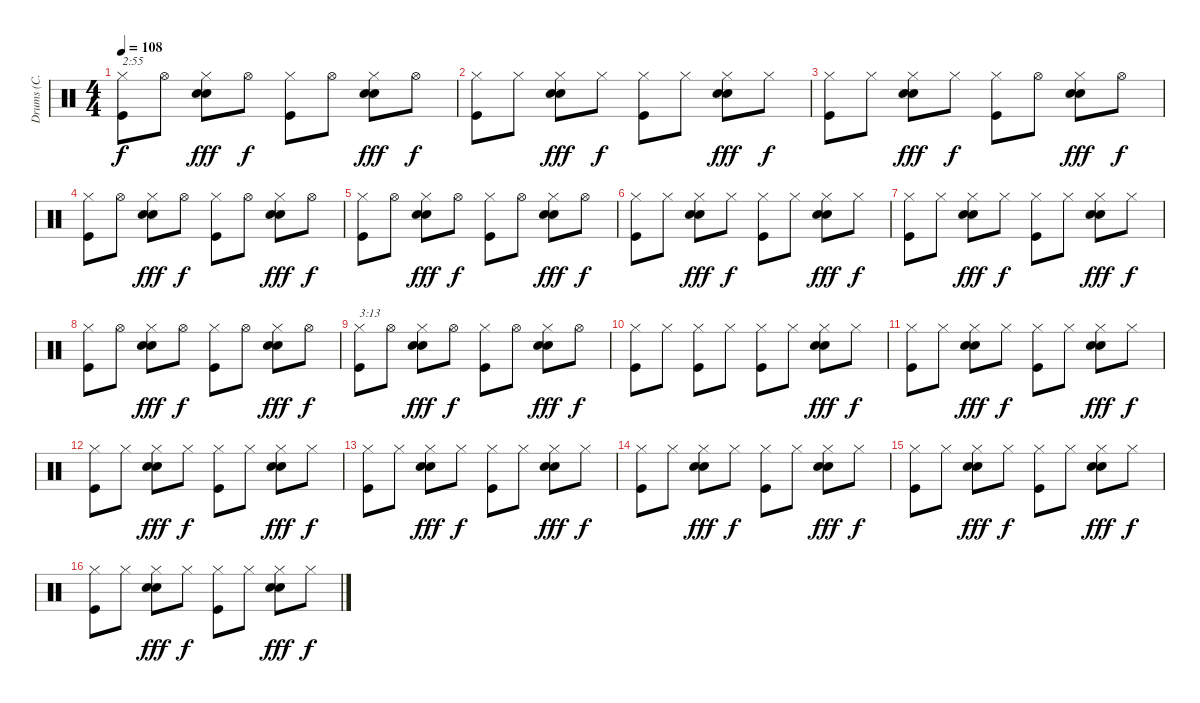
\track ("Drums (C. Watts)" "Drums (C. ") {instrument percussion}
\staff {score}
\articulation defaults
\ts (4 4)
\tempo 108
\clef neutral
\ks c
("Hi-Hat (closed)" "Kick (hit)").8{txt "2:55" dy f} "Hi-Hat (open)".8 ("Hi-Hat (closed)" "Snare (hit) 2" "Electric Snare (hit)").8{dy fff} "Hi-Hat (open)".8{dy f} ("Hi-Hat (closed)" "Kick (hit)").8 "Hi-Hat (open)".8 ("Hi-Hat (closed)" "Snare (hit) 2" "Electric Snare (hit)").8{dy fff} "Hi-Hat (open)".8{dy f} |
("Hi-Hat (closed)" "Kick (hit)").8 "Hi-Hat (closed)".8 ("Hi-Hat (closed)" "Snare (hit) 2" "Electric Snare (hit)").8{dy fff} "Hi-Hat (closed)".8{dy f} ("Hi-Hat (closed)" "Kick (hit)").8 "Hi-Hat (closed)".8 ("Hi-Hat (closed)" "Snare (hit) 2" "Electric Snare (hit)").8{dy fff} "Hi-Hat (closed)".8{dy f} |
("Hi-Hat (closed)" "Kick (hit)").8 "Hi-Hat (closed)".8 ("Hi-Hat (closed)" "Snare (hit) 2" "Electric Snare (hit)").8{dy fff} "Hi-Hat (closed)".8{dy f} ("Hi-Hat (closed)" "Kick (hit)").8 "Hi-Hat (open)".8 ("Hi-Hat (closed)" "Snare (hit) 2" "Electric Snare (hit)").8{dy fff} "Hi-Hat (open)".8{dy f} |
("Hi-Hat (closed)" "Kick (hit)").8 "Hi-Hat (open)".8 ("Hi-Hat (closed)" "Snare (hit) 2" "Electric Snare (hit)").8{dy fff} "Hi-Hat (open)".8{dy f} ("Hi-Hat (closed)" "Kick (hit)").8 "Hi-Hat (open)".8 ("Hi-Hat (closed)" "Snare (hit) 2" "Electric Snare (hit)").8{dy fff} "Hi-Hat (open)".8{dy f} |
("Hi-Hat (closed)" "Kick (hit)").8 "Hi-Hat (open)".8 ("Hi-Hat (closed)" "Snare (hit) 2" "Electric Snare (hit)").8{dy fff} "Hi-Hat (open)".8{dy f} ("Hi-Hat (closed)" "Kick (hit)").8 "Hi-Hat (open)".8 ("Hi-Hat (closed)" "Snare (hit) 2" "Electric Snare (hit)").8{dy fff} "Hi-Hat (open)".8{dy f} |
("Hi-Hat (closed)" "Kick (hit)").8 "Hi-Hat (closed)".8 ("Hi-Hat (closed)" "Snare (hit) 2" "Electric Snare (hit)").8{dy fff} "Hi-Hat (closed)".8{dy f} ("Hi-Hat (closed)" "Kick (hit)").8 "Hi-Hat (closed)".8 ("Hi-Hat (closed)" "Snare (hit) 2" "Electric Snare (hit)").8{dy fff} "Hi-Hat (closed)".8{dy f} |
("Hi-Hat (closed)" "Kick (hit)").8 "Hi-Hat (closed)".8 ("Hi-Hat (closed)" "Snare (hit) 2" "Electric Snare (hit)").8{dy fff} "Hi-Hat (closed)".8{dy f} ("Hi-Hat (closed)" "Kick (hit)").8 "Hi-Hat (closed)".8 ("Hi-Hat (closed)" "Snare (hit) 2" "Electric Snare (hit)").8{dy fff} "Hi-Hat (closed)".8{dy f} |
("Hi-Hat (closed)" "Kick (hit)").8 "Hi-Hat (open)".8 ("Hi-Hat (closed)" "Snare (hit) 2" "Electric Snare (hit)").8{dy fff} "Hi-Hat (open)".8{dy f} ("Hi-Hat (closed)" "Kick (hit)").8 "Hi-Hat (open)".8 ("Hi-Hat (closed)" "Snare (hit) 2" "Electric Snare (hit)").8{dy fff} "Hi-Hat (open)".8{dy f} |
("Hi-Hat (closed)" "Kick (hit)").8{txt "3:13"} "Hi-Hat (open)".8 ("Hi-Hat (closed)" "Snare (hit) 2" "Electric Snare (hit)").8{dy fff} "Hi-Hat (open)".8{dy f} ("Hi-Hat (closed)" "Kick (hit)").8 "Hi-Hat (open)".8 ("Hi-Hat (closed)" "Snare (hit) 2" "Electric Snare (hit)").8{dy fff} "Hi-Hat (open)".8{dy f} |
("Hi-Hat (closed)" "Kick (hit)").8 "Hi-Hat (closed)".8 ("Hi-Hat (closed)" "Kick (hit)").8 "Hi-Hat (closed)".8 ("Hi-Hat (closed)" "Kick (hit)").8 "Hi-Hat (closed)".8 ("Hi-Hat (closed)" "Snare (hit) 2" "Electric Snare (hit)").8{dy fff} "Hi-Hat (closed)".8{dy f} |
("Hi-Hat (closed)" "Kick (hit)").8 "Hi-Hat (closed)".8 ("Hi-Hat (closed)" "Snare (hit) 2" "Electric Snare (hit)").8{dy fff} "Hi-Hat (closed)".8{dy f} ("Hi-Hat (closed)" "Kick (hit)").8 "Hi-Hat (closed)".8 ("Hi-Hat (closed)" "Snare (hit) 2" "Electric Snare (hit)").8{dy fff} "Hi-Hat (closed)".8{dy f} |
("Hi-Hat (closed)" "Kick (hit)").8 "Hi-Hat (closed)".8 ("Hi-Hat (closed)" "Snare (hit) 2" "Electric Snare (hit)").8{dy fff} "Hi-Hat (closed)".8{dy f} ("Hi-Hat (closed)" "Kick (hit)").8 "Hi-Hat (closed)".8 ("Hi-Hat (closed)" "Snare (hit) 2" "Electric Snare (hit)").8{dy fff} "Hi-Hat (closed)".8{dy f} |
("Hi-Hat (closed)" "Kick (hit)").8 "Hi-Hat (closed)".8 ("Hi-Hat (closed)" "Snare (hit) 2" "Electric Snare (hit)").8{dy fff} "Hi-Hat (closed)".8{dy f} ("Hi-Hat (closed)" "Kick (hit)").8 "Hi-Hat (closed)".8 ("Hi-Hat (closed)" "Snare (hit) 2" "Electric Snare (hit)").8{dy fff} "Hi-Hat (closed)".8{dy f} |
("Hi-Hat (closed)" "Kick (hit)").8 "Hi-Hat (closed)".8 ("Hi-Hat (closed)" "Snare (hit) 2" "Electric Snare (hit)").8{dy fff} "Hi-Hat (closed)".8{dy f} ("Hi-Hat (closed)" "Kick (hit)").8 "Hi-Hat (closed)".8 ("Hi-Hat (closed)" "Snare (hit) 2" "Electric Snare (hit)").8{dy fff} "Hi-Hat (closed)".8{dy f} |
("Hi-Hat (closed)" "Kick (hit)").8 "Hi-Hat (closed)".8 ("Hi-Hat (closed)" "Snare (hit) 2" "Electric Snare (hit)").8{dy fff} "Hi-Hat (closed)".8{dy f} ("Hi-Hat (closed)" "Kick (hit)").8 "Hi-Hat (closed)".8 ("Hi-Hat (closed)" "Snare (hit) 2" "Electric Snare (hit)").8{dy fff} "Hi-Hat (closed)".8{dy f} |
("Hi-Hat (closed)" "Kick (hit)").8 "Hi-Hat (closed)".8 ("Hi-Hat (closed)" "Snare (hit) 2" "Electric Snare (hit)").8{dy fff} "Hi-Hat (closed)".8{dy f} ("Hi-Hat (closed)" "Kick (hit)").8 "Hi-Hat (closed)".8 ("Hi-Hat (closed)" "Snare (hit) 2" "Electric Snare (hit)").8{dy fff} "Hi-Hat (closed)".8{dy f}
